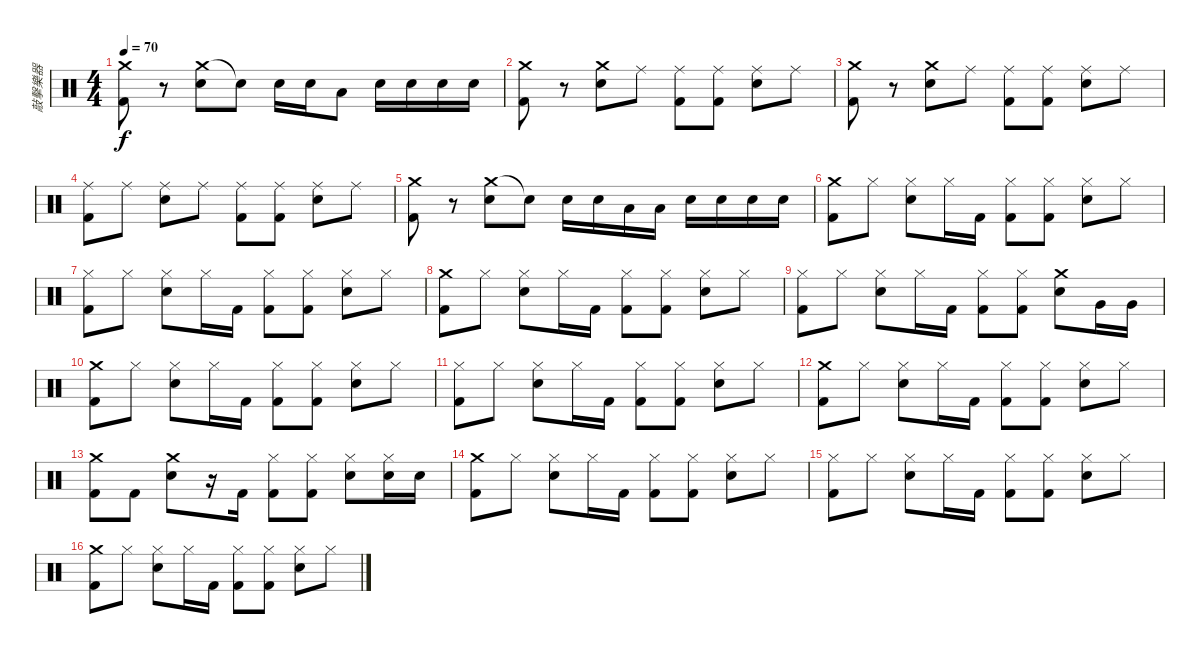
\track ("敲擊樂器" "敲擊樂器") {instrument percussion}
\staff {score}
\articulation defaults
\ts (4 4)
\tempo 70
\clef neutral
\ks c
("Crash medium (hit)" "Kick (hit) 2").8{dy f} r.8 ("Crash medium (hit)" "Snare (hit) 2").8 "Snare (hit) 2"{t}.8 "Snare (hit) 2".16 "Snare (hit) 2".16 "Low Floor Tom (hit)".8 "Snare (hit) 2".16 "Snare (hit) 2".16 "Snare (hit) 2".16 "Snare (hit) 2".16 |
("Crash medium (hit)" "Kick (hit) 2").8 r.8 ("Crash medium (hit)" "Snare (hit) 2").8 "Ride (middle)".8 ("Ride (middle)" "Kick (hit) 2").8 ("Ride (middle)" "Kick (hit) 2").8 ("Ride (middle)" "Snare (hit) 2").8 "Ride (middle)".8 |
("Crash medium (hit)" "Kick (hit) 2").8 r.8 ("Crash medium (hit)" "Snare (hit) 2").8 "Ride (middle)".8 ("Ride (middle)" "Kick (hit) 2").8 ("Ride (middle)" "Kick (hit) 2").8 ("Ride (middle)" "Snare (hit) 2").8 "Ride (middle)".8 |
("Ride (middle)" "Kick (hit) 2").8 "Ride (middle)".8 ("Ride (middle)" "Snare (hit) 2").8 "Ride (middle)".8 ("Ride (middle)" "Kick (hit) 2").8 ("Ride (middle)" "Kick (hit) 2").8 ("Ride (middle)" "Snare (hit) 2").8 "Ride (middle)".8 |
("Crash medium (hit)" "Kick (hit) 2").8 r.8 ("Crash medium (hit)" "Snare (hit) 2").8 "Snare (hit) 2"{t}.8 "Snare (hit) 2".16 "Snare (hit) 2".16 "Low Floor Tom (hit)".16 "Low Floor Tom (hit)".16 "Snare (hit) 2".16 "Snare (hit) 2".16 "Snare (hit) 2".16 "Snare (hit) 2".16 |
("Crash medium (hit)" "Kick (hit) 2").8 "Hi-Hat (closed)".8 ("Hi-Hat (closed)" "Snare (hit) 2").8 "Hi-Hat (closed)".16 "Kick (hit) 2".16 ("Hi-Hat (closed)" "Kick (hit) 2").8 ("Hi-Hat (closed)" "Kick (hit) 2").8 ("Hi-Hat (closed)" "Snare (hit) 2").8 "Hi-Hat (closed)".8 |
("Hi-Hat (closed)" "Kick (hit) 2").8 "Hi-Hat (closed)".8 ("Hi-Hat (closed)" "Snare (hit) 2").8 "Hi-Hat (closed)".16 "Kick (hit) 2".16 ("Hi-Hat (closed)" "Kick (hit) 2").8 ("Hi-Hat (closed)" "Kick (hit) 2").8 ("Hi-Hat (closed)" "Snare (hit) 2").8 "Hi-Hat (closed)".8 |
("Crash medium (hit)" "Kick (hit) 2").8 "Hi-Hat (closed)".8 ("Hi-Hat (closed)" "Snare (hit) 2").8 "Hi-Hat (closed)".16 "Kick (hit) 2".16 ("Hi-Hat (closed)" "Kick (hit) 2").8 ("Hi-Hat (closed)" "Kick (hit) 2").8 ("Hi-Hat (closed)" "Snare (hit) 2").8 "Hi-Hat (closed)".8 |
("Hi-Hat (closed)" "Kick (hit) 2").8 "Hi-Hat (closed)".8 ("Hi-Hat (closed)" "Snare (hit) 2").8 "Hi-Hat (closed)".16 "Kick (hit) 2".16 ("Hi-Hat (closed)" "Kick (hit) 2").8 ("Hi-Hat (closed)" "Kick (hit) 2").8 ("Crash medium (hit)" "Snare (hit) 2").8 "Very Low Tom (hit)".16 "Very Low Tom (hit)".16 |
("Crash medium (hit)" "Kick (hit) 2").8 "Hi-Hat (closed)".8 ("Hi-Hat (closed)" "Snare (hit) 2").8 "Hi-Hat (closed)".16 "Kick (hit) 2".16 ("Hi-Hat (closed)" "Kick (hit) 2").8 ("Hi-Hat (closed)" "Kick (hit) 2").8 ("Hi-Hat (closed)" "Snare (hit) 2").8 "Hi-Hat (closed)".8 |
("Hi-Hat (closed)" "Kick (hit) 2").8 "Hi-Hat (closed)".8 ("Hi-Hat (closed)" "Snare (hit) 2").8 "Hi-Hat (closed)".16 "Kick (hit) 2".16 ("Hi-Hat (closed)" "Kick (hit) 2").8 ("Hi-Hat (closed)" "Kick (hit) 2").8 ("Hi-Hat (closed)" "Snare (hit) 2").8 "Hi-Hat (closed)".8 |
("Crash medium (hit)" "Kick (hit) 2").8 "Hi-Hat (closed)".8 ("Hi-Hat (closed)" "Snare (hit) 2").8 "Hi-Hat (closed)".16 "Kick (hit) 2".16 ("Hi-Hat (closed)" "Kick (hit) 2").8 ("Hi-Hat (closed)" "Kick (hit) 2").8 ("Hi-Hat (closed)" "Snare (hit) 2").8 "Hi-Hat (closed)".8 |
("Crash medium (hit)" "Kick (hit) 2").8 "Kick (hit) 2".8 ("Crash medium (hit)" "Snare (hit) 2").8 r.16 "Kick (hit) 2".16 ("Hi-Hat (closed)" "Kick (hit) 2").8 ("Hi-Hat (closed)" "Kick (hit) 2").8 ("Hi-Hat (closed)" "Snare (hit) 2").8 ("Hi-Hat (closed)" "Snare (hit) 2").16 "Snare (hit) 2".16 |
("Crash medium (hit)" "Kick (hit) 2").8 "Hi-Hat (closed)".8 ("Hi-Hat (closed)" "Snare (hit) 2").8 "Hi-Hat (closed)".16 "Kick (hit) 2".16 ("Hi-Hat (closed)" "Kick (hit) 2").8 ("Hi-Hat (closed)" "Kick (hit) 2").8 ("Hi-Hat (closed)" "Snare (hit) 2").8 "Hi-Hat (closed)".8 |
("Hi-Hat (closed)" "Kick (hit) 2").8 "Hi-Hat (closed)".8 ("Hi-Hat (closed)" "Snare (hit) 2").8 "Hi-Hat (closed)".16 "Kick (hit) 2".16 ("Hi-Hat (closed)" "Kick (hit) 2").8 ("Hi-Hat (closed)" "Kick (hit) 2").8 ("Hi-Hat (closed)" "Snare (hit) 2").8 "Hi-Hat (closed)".8 |
("Crash medium (hit)" "Kick (hit) 2").8{volume 0} "Hi-Hat (closed)".8 ("Hi-Hat (closed)" "Snare (hit) 2").8 "Hi-Hat (closed)".16 "Kick (hit) 2".16 ("Hi-Hat (closed)" "Kick (hit) 2").8 ("Hi-Hat (closed)" "Kick (hit) 2").8 ("Hi-Hat (closed)" "Snare (hit) 2").8 "Hi-Hat (closed)".8
